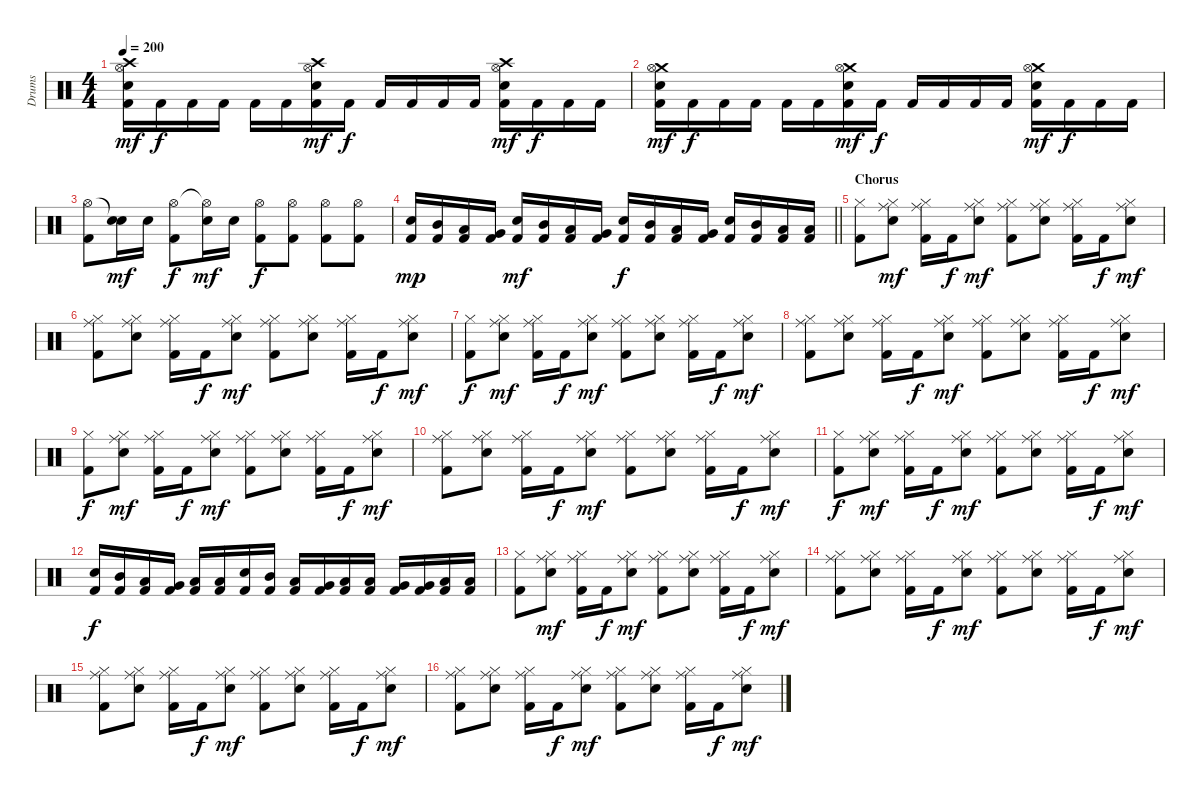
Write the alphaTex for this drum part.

\track ("Drums" "Drums") {instrument percussion}
\staff {score}
\articulation defaults
\ts (4 4)
\tempo 200
\clef neutral
\ks c
("Crash high (hit)" "Hi-Hat (open)" "Snare (hit) 2" "Kick (hit) 2").16{dy mf} "Kick (hit) 2".16{dy f} "Kick (hit) 2".16 "Kick (hit) 2".16 "Kick (hit) 2".16 "Kick (hit) 2".16 ("Crash high (hit)" "Hi-Hat (open)" "Snare (hit) 2" "Kick (hit) 2").16{dy mf} "Kick (hit) 2".16{dy f} "Kick (hit) 2".16 "Kick (hit) 2".16 "Kick (hit) 2".16 "Kick (hit) 2".16 ("Crash high (hit)" "Hi-Hat (open)" "Snare (hit) 2" "Kick (hit) 2").16{dy mf} "Kick (hit) 2".16{dy f} "Kick (hit) 2".16 "Kick (hit) 2".16 |
("Crash medium (hit)" "Hi-Hat (open)" "Snare (hit) 2" "Kick (hit) 2").16{dy mf} "Kick (hit) 2".16{dy f} "Kick (hit) 2".16 "Kick (hit) 2".16 "Kick (hit) 2".16 "Kick (hit) 2".16 ("Crash medium (hit)" "Hi-Hat (open)" "Snare (hit) 2" "Kick (hit) 2").16{dy mf} "Kick (hit) 2".16{dy f} "Kick (hit) 2".16 "Kick (hit) 2".16 "Kick (hit) 2".16 "Kick (hit) 2".16 ("Crash medium (hit)" "Hi-Hat (open)" "Snare (hit) 2" "Kick (hit) 2").16{dy mf} "Kick (hit) 2".16{dy f} "Kick (hit) 2".16 "Kick (hit) 2".16 |
("Hi-Hat (open)" "Kick (hit) 2").8 ("Snare (hit)"{t} "Snare (hit) 2").16{dy mf} "Snare (hit) 2".16 ("Hi-Hat (open)" "Kick (hit) 2").8{dy f} ("Hi-Hat (open)"{t} "Snare (hit) 2").16{dy mf} "Snare (hit) 2".16 ("Hi-Hat (open)" "Kick (hit) 2").8{dy f} ("Hi-Hat (open)" "Kick (hit) 2").8 ("Hi-Hat (open)" "Kick (hit) 2").8 ("Hi-Hat (open)" "Kick (hit) 2").8 |
\barLineRight lightlight
("Snare (hit) 2" "Kick (hit) 2").16{dy mp} ("Mid Tom (hit)" "Kick (hit) 2").16 ("Low Tom (hit)" "Kick (hit) 2").16 ("Very Low Tom (hit)" "Kick (hit) 2").16 ("Snare (hit) 2" "Kick (hit) 2").16{dy mf} ("Mid Tom (hit)" "Kick (hit) 2").16 ("Low Tom (hit)" "Kick (hit) 2").16 ("Very Low Tom (hit)" "Kick (hit) 2").16 ("Snare (hit) 2" "Kick (hit) 2").16{dy f} ("Mid Tom (hit)" "Kick (hit) 2").16 ("Low Tom (hit)" "Kick (hit) 2").16 ("Very Low Tom (hit)" "Kick (hit) 2").16 ("Snare (hit) 2" "Kick (hit) 2").16 ("Mid Tom (hit)" "Kick (hit) 2").16 ("Low Tom (hit)" "Kick (hit) 2").16 ("Low Floor Tom (hit)" "Kick (hit) 2").16 |
\section ("" "Chorus")
("Hi-Hat (closed)" "Kick (hit) 2").8 ("Hi-Hat (closed)" "Ride (middle)" "Snare (hit) 2").8{dy mf} ("Hi-Hat (closed)" "Ride (middle)" "Kick (hit) 2").16 "Kick (hit) 2".16{dy f} ("Hi-Hat (closed)" "Ride (middle)" "Snare (hit) 2").8{dy mf} ("Hi-Hat (closed)" "Ride (middle)" "Kick (hit) 2").8 ("Hi-Hat (closed)" "Ride (middle)" "Snare (hit) 2").8 ("Hi-Hat (closed)" "Ride (middle)" "Kick (hit) 2").16 "Kick (hit) 2".16{dy f} ("Hi-Hat (closed)" "Ride (middle)" "Snare (hit) 2").8{dy mf} |
("Hi-Hat (closed)" "Ride (middle)" "Kick (hit) 2").8 ("Hi-Hat (closed)" "Ride (middle)" "Snare (hit) 2").8 ("Hi-Hat (closed)" "Ride (middle)" "Kick (hit) 2").16 "Kick (hit) 2".16{dy f} ("Hi-Hat (closed)" "Ride (middle)" "Snare (hit) 2").8{dy mf} ("Hi-Hat (closed)" "Ride (middle)" "Kick (hit) 2").8 ("Hi-Hat (closed)" "Ride (middle)" "Snare (hit) 2").8 ("Hi-Hat (closed)" "Ride (middle)" "Kick (hit) 2").16 "Kick (hit) 2".16{dy f} ("Hi-Hat (closed)" "Ride (middle)" "Snare (hit) 2").8{dy mf} |
("Hi-Hat (closed)" "Kick (hit) 2").8{dy f} ("Hi-Hat (closed)" "Ride (middle)" "Snare (hit) 2").8{dy mf} ("Hi-Hat (closed)" "Ride (middle)" "Kick (hit) 2").16 "Kick (hit) 2".16{dy f} ("Hi-Hat (closed)" "Ride (middle)" "Snare (hit) 2").8{dy mf} ("Hi-Hat (closed)" "Ride (middle)" "Kick (hit) 2").8 ("Hi-Hat (closed)" "Ride (middle)" "Snare (hit) 2").8 ("Hi-Hat (closed)" "Ride (middle)" "Kick (hit) 2").16 "Kick (hit) 2".16{dy f} ("Hi-Hat (closed)" "Ride (middle)" "Snare (hit) 2").8{dy mf} |
("Hi-Hat (closed)" "Ride (middle)" "Kick (hit) 2").8 ("Hi-Hat (closed)" "Ride (middle)" "Snare (hit) 2").8 ("Hi-Hat (closed)" "Ride (middle)" "Kick (hit) 2").16 "Kick (hit) 2".16{dy f} ("Hi-Hat (closed)" "Ride (middle)" "Snare (hit) 2").8{dy mf} ("Hi-Hat (closed)" "Ride (middle)" "Kick (hit) 2").8 ("Hi-Hat (closed)" "Ride (middle)" "Snare (hit) 2").8 ("Hi-Hat (closed)" "Ride (middle)" "Kick (hit) 2").16 "Kick (hit) 2".16{dy f} ("Hi-Hat (closed)" "Ride (middle)" "Snare (hit) 2").8{dy mf} |
("Hi-Hat (closed)" "Kick (hit) 2").8{dy f} ("Hi-Hat (closed)" "Ride (middle)" "Snare (hit) 2").8{dy mf} ("Hi-Hat (closed)" "Ride (middle)" "Kick (hit) 2").16 "Kick (hit) 2".16{dy f} ("Hi-Hat (closed)" "Ride (middle)" "Snare (hit) 2").8{dy mf} ("Hi-Hat (closed)" "Ride (middle)" "Kick (hit) 2").8 ("Hi-Hat (closed)" "Ride (middle)" "Snare (hit) 2").8 ("Hi-Hat (closed)" "Ride (middle)" "Kick (hit) 2").16 "Kick (hit) 2".16{dy f} ("Hi-Hat (closed)" "Ride (middle)" "Snare (hit) 2").8{dy mf} |
("Hi-Hat (closed)" "Ride (middle)" "Kick (hit) 2").8 ("Hi-Hat (closed)" "Ride (middle)" "Snare (hit) 2").8 ("Hi-Hat (closed)" "Ride (middle)" "Kick (hit) 2").16 "Kick (hit) 2".16{dy f} ("Hi-Hat (closed)" "Ride (middle)" "Snare (hit) 2").8{dy mf} ("Hi-Hat (closed)" "Ride (middle)" "Kick (hit) 2").8 ("Hi-Hat (closed)" "Ride (middle)" "Snare (hit) 2").8 ("Hi-Hat (closed)" "Ride (middle)" "Kick (hit) 2").16 "Kick (hit) 2".16{dy f} ("Hi-Hat (closed)" "Ride (middle)" "Snare (hit) 2").8{dy mf} |
("Hi-Hat (closed)" "Kick (hit) 2").8{dy f} ("Hi-Hat (closed)" "Ride (middle)" "Snare (hit) 2").8{dy mf} ("Hi-Hat (closed)" "Ride (middle)" "Kick (hit) 2").16 "Kick (hit) 2".16{dy f} ("Hi-Hat (closed)" "Ride (middle)" "Snare (hit) 2").8{dy mf} ("Hi-Hat (closed)" "Ride (middle)" "Kick (hit) 2").8 ("Hi-Hat (closed)" "Ride (middle)" "Snare (hit) 2").8 ("Hi-Hat (closed)" "Ride (middle)" "Kick (hit) 2").16 "Kick (hit) 2".16{dy f} ("Hi-Hat (closed)" "Ride (middle)" "Snare (hit) 2").8{dy mf} |
("Snare (hit) 2" "Kick (hit) 2").16{dy f} ("Mid Tom (hit)" "Kick (hit) 2").16 ("Low Tom (hit)" "Kick (hit) 2").16 ("Very Low Tom (hit)" "Kick (hit) 2").16 ("Low Floor Tom (hit)" "Kick (hit) 2").16 ("Low Floor Tom (hit)" "Kick (hit) 2").16 ("Snare (hit) 2" "Kick (hit) 2").16 ("Mid Tom (hit)" "Kick (hit) 2").16 ("Low Tom (hit)" "Kick (hit) 2").16 ("Very Low Tom (hit)" "Kick (hit) 2").16 ("Low Tom (hit)" "Kick (hit) 2").16 ("Low Tom (hit)" "Kick (hit) 2").16 ("Very Low Tom (hit)" "Kick (hit) 2").16 ("Very Low Tom (hit)" "Kick (hit) 2").16 ("Low Floor Tom (hit)" "Kick (hit) 2").16 ("Low Floor Tom (hit)" "Kick (hit) 2").16 |
("Hi-Hat (closed)" "Kick (hit) 2").8 ("Hi-Hat (closed)" "Ride (middle)" "Snare (hit) 2").8{dy mf} ("Hi-Hat (closed)" "Ride (middle)" "Kick (hit) 2").16 "Kick (hit) 2".16{dy f} ("Hi-Hat (closed)" "Ride (middle)" "Snare (hit) 2").8{dy mf} ("Hi-Hat (closed)" "Ride (middle)" "Kick (hit) 2").8 ("Hi-Hat (closed)" "Ride (middle)" "Snare (hit) 2").8 ("Hi-Hat (closed)" "Ride (middle)" "Kick (hit) 2").16 "Kick (hit) 2".16{dy f} ("Hi-Hat (closed)" "Ride (middle)" "Snare (hit) 2").8{dy mf} |
("Hi-Hat (closed)" "Ride (middle)" "Kick (hit) 2").8 ("Hi-Hat (closed)" "Ride (middle)" "Snare (hit) 2").8 ("Hi-Hat (closed)" "Ride (middle)" "Kick (hit) 2").16 "Kick (hit) 2".16{dy f} ("Hi-Hat (closed)" "Ride (middle)" "Snare (hit) 2").8{dy mf} ("Hi-Hat (closed)" "Ride (middle)" "Kick (hit) 2").8 ("Hi-Hat (closed)" "Ride (middle)" "Snare (hit) 2").8 ("Hi-Hat (closed)" "Ride (middle)" "Kick (hit) 2").16 "Kick (hit) 2".16{dy f} ("Hi-Hat (closed)" "Ride (middle)" "Snare (hit) 2").8{dy mf} |
("Hi-Hat (closed)" "Ride (middle)" "Kick (hit) 2").8 ("Hi-Hat (closed)" "Ride (middle)" "Snare (hit) 2").8 ("Hi-Hat (closed)" "Ride (middle)" "Kick (hit) 2").16 "Kick (hit) 2".16{dy f} ("Hi-Hat (closed)" "Ride (middle)" "Snare (hit) 2").8{dy mf} ("Hi-Hat (closed)" "Ride (middle)" "Kick (hit) 2").8 ("Hi-Hat (closed)" "Ride (middle)" "Snare (hit) 2").8 ("Hi-Hat (closed)" "Ride (middle)" "Kick (hit) 2").16 "Kick (hit) 2".16{dy f} ("Hi-Hat (closed)" "Ride (middle)" "Snare (hit) 2").8{dy mf} |
("Hi-Hat (closed)" "Ride (middle)" "Kick (hit) 2").8 ("Hi-Hat (closed)" "Ride (middle)" "Snare (hit) 2").8 ("Hi-Hat (closed)" "Ride (middle)" "Kick (hit) 2").16 "Kick (hit) 2".16{dy f} ("Hi-Hat (closed)" "Ride (middle)" "Snare (hit) 2").8{dy mf} ("Hi-Hat (closed)" "Ride (middle)" "Kick (hit) 2").8 ("Hi-Hat (closed)" "Ride (middle)" "Snare (hit) 2").8 ("Hi-Hat (closed)" "Ride (middle)" "Kick (hit) 2").16 "Kick (hit) 2".16{dy f} ("Hi-Hat (closed)" "Ride (middle)" "Snare (hit) 2").8{dy mf}
